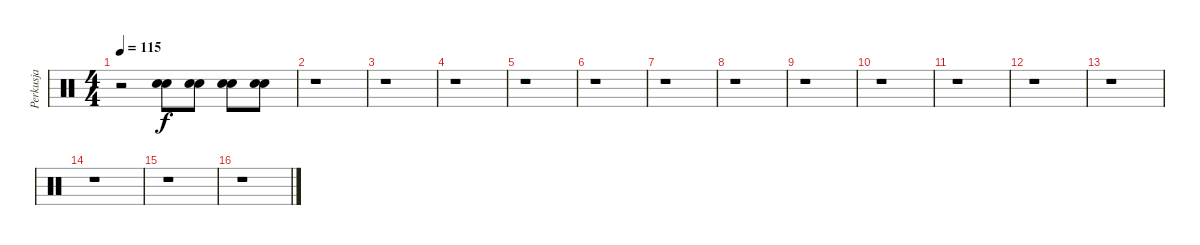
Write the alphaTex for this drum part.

\track ("Perkusja" "Perkusja") {instrument percussion}
\staff {score}
\articulation defaults
\ts (4 4)
\tempo 115
\clef neutral
\ks c
r.2{dy f} ("Hand Clap (hit)" "Hand Clap (hit)").8 ("Hand Clap (hit)" "Hand Clap (hit)").8 ("Hand Clap (hit)" "Hand Clap (hit)").8 ("Hand Clap (hit)" "Hand Clap (hit)").8 |
r.1 |
r.1 |
r.1 |
r.1 |
r.1 |
r.1 |
r.1 |
r.1 |
r.1 |
r.1 |
r.1 |
r.1 |
r.1 |
r.1 |
r.1
